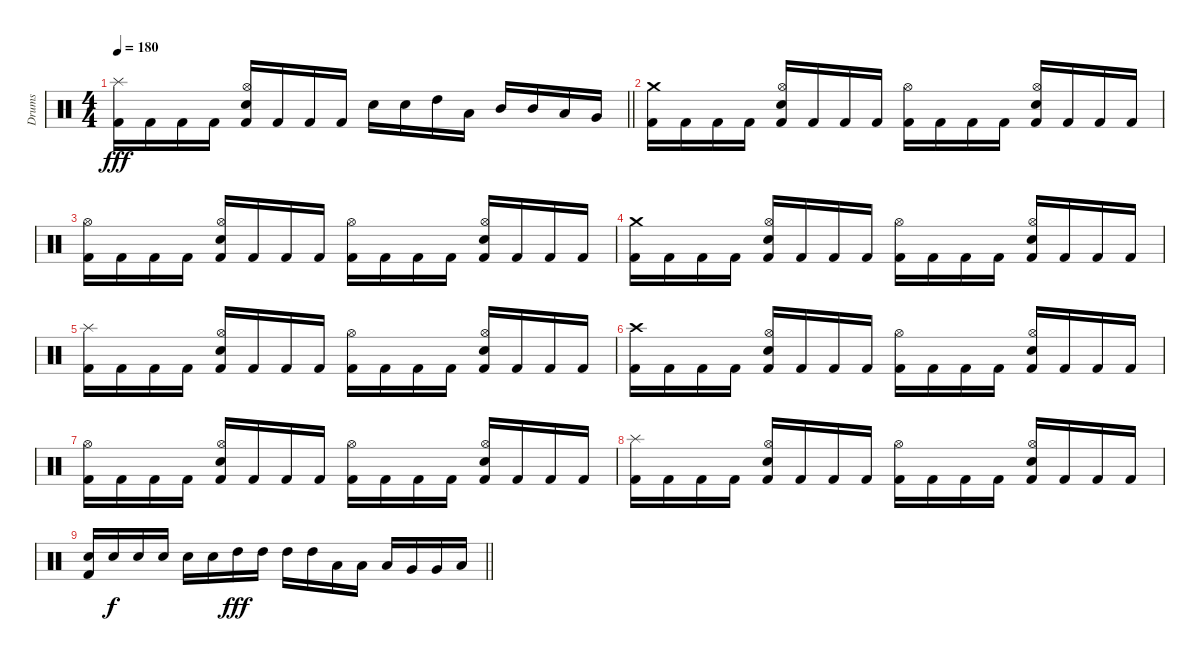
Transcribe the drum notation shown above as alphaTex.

\track ("Drums" "Drums") {instrument percussion}
\staff {score}
\articulation defaults
\ts (4 4)
\tempo 180
\clef neutral
\barLineRight lightlight
\ks c
("Splash (hit)" "Kick (hit) 2").16{dy fff} "Kick (hit) 2".16 "Kick (hit) 2".16 "Kick (hit) 2".16 ("Hi-Hat (open)" "Electric Snare (hit)" "Kick (hit) 2").16 "Kick (hit) 2".16 "Kick (hit) 2".16 "Kick (hit) 2".16 "Electric Snare (hit)".16 "Electric Snare (hit)".16 "High Tom (hit)".16 "Low Tom (hit)".16 "Mid Tom (hit)".16 "Mid Tom (hit)".16 "Low Tom (hit)".16 "Very Low Tom (hit)".16 |
\section ("" "")
("Crash medium (hit)" "Kick (hit) 2").16 "Kick (hit) 2".16 "Kick (hit) 2".16 "Kick (hit) 2".16 ("Hi-Hat (open)" "Electric Snare (hit)" "Kick (hit) 2").16 "Kick (hit) 2".16 "Kick (hit) 2".16 "Kick (hit) 2".16 ("Hi-Hat (open)" "Kick (hit) 2").16 "Kick (hit) 2".16 "Kick (hit) 2".16 "Kick (hit) 2".16 ("Hi-Hat (open)" "Electric Snare (hit)" "Kick (hit) 2").16 "Kick (hit) 2".16 "Kick (hit) 2".16 "Kick (hit) 2".16 |
("Hi-Hat (open)" "Kick (hit) 2").16 "Kick (hit) 2".16 "Kick (hit) 2".16 "Kick (hit) 2".16 ("Hi-Hat (open)" "Electric Snare (hit)" "Kick (hit) 2").16 "Kick (hit) 2".16 "Kick (hit) 2".16 "Kick (hit) 2".16 ("Hi-Hat (open)" "Kick (hit) 2").16 "Kick (hit) 2".16 "Kick (hit) 2".16 "Kick (hit) 2".16 ("Hi-Hat (open)" "Electric Snare (hit)" "Kick (hit) 2").16 "Kick (hit) 2".16 "Kick (hit) 2".16 "Kick (hit) 2".16 |
("Crash medium (hit)" "Kick (hit) 2").16 "Kick (hit) 2".16 "Kick (hit) 2".16 "Kick (hit) 2".16 ("Hi-Hat (open)" "Electric Snare (hit)" "Kick (hit) 2").16 "Kick (hit) 2".16 "Kick (hit) 2".16 "Kick (hit) 2".16 ("Hi-Hat (open)" "Kick (hit) 2").16 "Kick (hit) 2".16 "Kick (hit) 2".16 "Kick (hit) 2".16 ("Hi-Hat (open)" "Electric Snare (hit)" "Kick (hit) 2").16 "Kick (hit) 2".16 "Kick (hit) 2".16 "Kick (hit) 2".16 |
("Splash (hit)" "Kick (hit) 2").16 "Kick (hit) 2".16 "Kick (hit) 2".16 "Kick (hit) 2".16 ("Hi-Hat (open)" "Electric Snare (hit)" "Kick (hit) 2").16 "Kick (hit) 2".16 "Kick (hit) 2".16 "Kick (hit) 2".16 ("Hi-Hat (open)" "Kick (hit) 2").16 "Kick (hit) 2".16 "Kick (hit) 2".16 "Kick (hit) 2".16 ("Hi-Hat (open)" "Electric Snare (hit)" "Kick (hit) 2").16 "Kick (hit) 2".16 "Kick (hit) 2".16 "Kick (hit) 2".16 |
("Crash high (hit)" "Kick (hit) 2").16 "Kick (hit) 2".16 "Kick (hit) 2".16 "Kick (hit) 2".16 ("Hi-Hat (open)" "Electric Snare (hit)" "Kick (hit) 2").16 "Kick (hit) 2".16 "Kick (hit) 2".16 "Kick (hit) 2".16 ("Hi-Hat (open)" "Kick (hit) 2").16 "Kick (hit) 2".16 "Kick (hit) 2".16 "Kick (hit) 2".16 ("Hi-Hat (open)" "Electric Snare (hit)" "Kick (hit) 2").16 "Kick (hit) 2".16 "Kick (hit) 2".16 "Kick (hit) 2".16 |
("Hi-Hat (open)" "Kick (hit) 2").16 "Kick (hit) 2".16 "Kick (hit) 2".16 "Kick (hit) 2".16 ("Hi-Hat (open)" "Electric Snare (hit)" "Kick (hit) 2").16 "Kick (hit) 2".16 "Kick (hit) 2".16 "Kick (hit) 2".16 ("Hi-Hat (open)" "Kick (hit) 2").16 "Kick (hit) 2".16 "Kick (hit) 2".16 "Kick (hit) 2".16 ("Hi-Hat (open)" "Electric Snare (hit)" "Kick (hit) 2").16 "Kick (hit) 2".16 "Kick (hit) 2".16 "Kick (hit) 2".16 |
("Splash (hit)" "Kick (hit) 2").16 "Kick (hit) 2".16 "Kick (hit) 2".16 "Kick (hit) 2".16 ("Hi-Hat (open)" "Electric Snare (hit)" "Kick (hit) 2").16 "Kick (hit) 2".16 "Kick (hit) 2".16 "Kick (hit) 2".16 ("Hi-Hat (open)" "Kick (hit) 2").16 "Kick (hit) 2".16 "Kick (hit) 2".16 "Kick (hit) 2".16 ("Hi-Hat (open)" "Electric Snare (hit)" "Kick (hit) 2").16 "Kick (hit) 2".16 "Kick (hit) 2".16 "Kick (hit) 2".16 |
\barLineRight lightlight
("Electric Snare (hit)" "Kick (hit) 2").16 "Electric Snare (hit)".16{dy f} "Electric Snare (hit)".16 "Electric Snare (hit)".16 "Electric Snare (hit)".16 "Electric Snare (hit)".16 "High Tom (hit)".16{dy fff} "High Tom (hit)".16 "High Tom (hit)".16 "High Tom (hit)".16 "Low Tom (hit)".16 "Low Tom (hit)".16 "Low Tom (hit)".16 "Very Low Tom (hit)".16 "Very Low Tom (hit)".16 "Low Floor Tom (hit)".16
